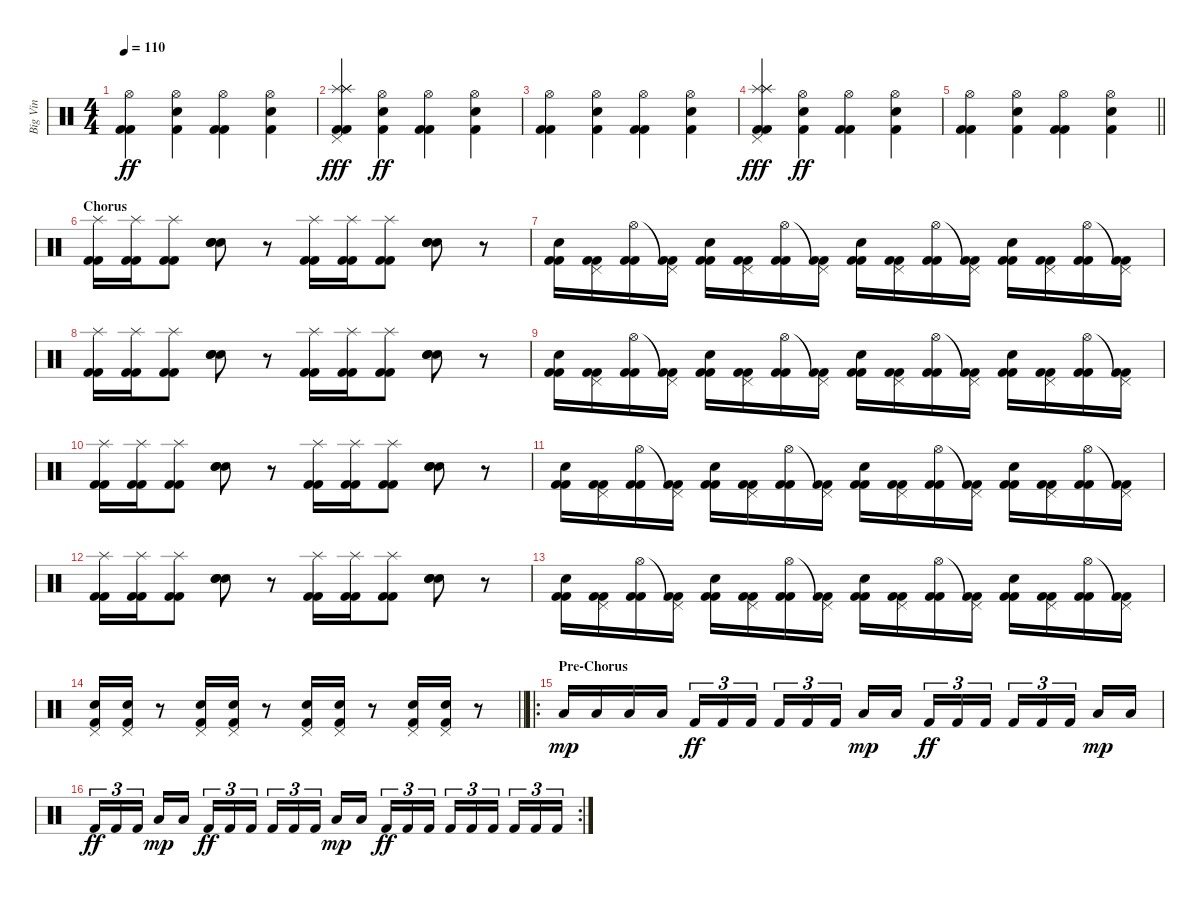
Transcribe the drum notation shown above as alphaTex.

\track ("Big Vin" "Big Vin") {instrument percussion}
\staff {score}
\articulation defaults
\ts (4 4)
\tempo 110
\clef neutral
\ks c
("Hi-Hat (open)" "Kick (hit) 2" "Kick (hit) 2").4{dy ff} ("Hi-Hat (open)" "Snare (hit) 2" "Kick (hit) 2").4 ("Hi-Hat (open)" "Kick (hit) 2" "Kick (hit) 2").4 ("Hi-Hat (open)" "Snare (hit) 2" "Kick (hit) 2").4 |
("Splash (hit)" "Splash (hit)" "Splash (hit)" "Pedal Hi-Hat (hit)" "Kick (hit) 2" "Kick (hit) 2").4{dy fff} ("Hi-Hat (open)" "Snare (hit) 2" "Kick (hit) 2").4{dy ff} ("Hi-Hat (open)" "Kick (hit) 2" "Kick (hit) 2").4 ("Hi-Hat (open)" "Snare (hit) 2" "Kick (hit) 2").4 |
("Hi-Hat (open)" "Kick (hit) 2" "Kick (hit) 2").4 ("Hi-Hat (open)" "Snare (hit) 2" "Kick (hit) 2").4 ("Hi-Hat (open)" "Kick (hit) 2" "Kick (hit) 2").4 ("Hi-Hat (open)" "Snare (hit) 2" "Kick (hit) 2").4 |
("Splash (hit)" "Splash (hit)" "Splash (hit)" "Pedal Hi-Hat (hit)" "Kick (hit) 2" "Kick (hit) 2").4{dy fff} ("Hi-Hat (open)" "Snare (hit) 2" "Kick (hit) 2").4{dy ff} ("Hi-Hat (open)" "Kick (hit) 2" "Kick (hit) 2").4 ("Hi-Hat (open)" "Snare (hit) 2" "Kick (hit) 2").4 |
\barLineRight lightlight
("Hi-Hat (open)" "Kick (hit) 2" "Kick (hit) 2").4 ("Hi-Hat (open)" "Snare (hit) 2" "Kick (hit) 2").4 ("Hi-Hat (open)" "Kick (hit) 2" "Kick (hit) 2").4 ("Hi-Hat (open)" "Snare (hit) 2" "Kick (hit) 2").4 |
\section ("" "Chorus")
("Splash (hit)" "Kick (hit) 2" "Kick (hit) 2").16 ("Splash (hit)" "Kick (hit) 2" "Kick (hit) 2").16 ("Splash (hit)" "Kick (hit) 2" "Kick (hit) 2").8 ("Snare (hit) 2" "Snare (hit) 2" "Snare (hit) 2").8 r.8 ("Splash (hit)" "Kick (hit) 2" "Kick (hit) 2").16 ("Splash (hit)" "Kick (hit) 2" "Kick (hit) 2").16 ("Splash (hit)" "Kick (hit) 2" "Kick (hit) 2").8 ("Snare (hit) 2" "Snare (hit) 2" "Snare (hit) 2").8 r.8 |
("Snare (hit) 2" "Kick (hit) 2" "Kick (hit) 2").16 ("Pedal Hi-Hat (hit)" "Kick (hit) 2" "Kick (hit) 2").16 ("Hi-Hat (open)" "Kick (hit) 2" "Kick (hit) 2").16 ("Pedal Hi-Hat (hit)"{t} "Kick (hit) 2" "Kick (hit) 2").16 ("Snare (hit) 2" "Kick (hit) 2" "Kick (hit) 2").16 ("Pedal Hi-Hat (hit)" "Kick (hit) 2" "Kick (hit) 2").16 ("Hi-Hat (open)" "Kick (hit) 2" "Kick (hit) 2").16 ("Pedal Hi-Hat (hit)"{t} "Kick (hit) 2" "Kick (hit) 2").16 ("Snare (hit) 2" "Kick (hit) 2" "Kick (hit) 2").16 ("Pedal Hi-Hat (hit)" "Kick (hit) 2" "Kick (hit) 2").16 ("Hi-Hat (open)" "Kick (hit) 2" "Kick (hit) 2").16 ("Pedal Hi-Hat (hit)"{t} "Kick (hit) 2" "Kick (hit) 2").16 ("Snare (hit) 2" "Kick (hit) 2" "Kick (hit) 2").16 ("Pedal Hi-Hat (hit)" "Kick (hit) 2" "Kick (hit) 2").16 ("Hi-Hat (open)" "Kick (hit) 2" "Kick (hit) 2").16 ("Pedal Hi-Hat (hit)"{t} "Kick (hit) 2" "Kick (hit) 2").16 |
("Splash (hit)" "Kick (hit) 2" "Kick (hit) 2").16 ("Splash (hit)" "Kick (hit) 2" "Kick (hit) 2").16 ("Splash (hit)" "Kick (hit) 2" "Kick (hit) 2").8 ("Snare (hit) 2" "Snare (hit) 2" "Snare (hit) 2").8 r.8 ("Splash (hit)" "Kick (hit) 2" "Kick (hit) 2").16 ("Splash (hit)" "Kick (hit) 2" "Kick (hit) 2").16 ("Splash (hit)" "Kick (hit) 2" "Kick (hit) 2").8 ("Snare (hit) 2" "Snare (hit) 2" "Snare (hit) 2").8 r.8 |
("Snare (hit) 2" "Kick (hit) 2" "Kick (hit) 2").16 ("Pedal Hi-Hat (hit)" "Kick (hit) 2" "Kick (hit) 2").16 ("Hi-Hat (open)" "Kick (hit) 2" "Kick (hit) 2").16 ("Pedal Hi-Hat (hit)"{t} "Kick (hit) 2" "Kick (hit) 2").16 ("Snare (hit) 2" "Kick (hit) 2" "Kick (hit) 2").16 ("Pedal Hi-Hat (hit)" "Kick (hit) 2" "Kick (hit) 2").16 ("Hi-Hat (open)" "Kick (hit) 2" "Kick (hit) 2").16 ("Pedal Hi-Hat (hit)"{t} "Kick (hit) 2" "Kick (hit) 2").16 ("Snare (hit) 2" "Kick (hit) 2" "Kick (hit) 2").16 ("Pedal Hi-Hat (hit)" "Kick (hit) 2" "Kick (hit) 2").16 ("Hi-Hat (open)" "Kick (hit) 2" "Kick (hit) 2").16 ("Pedal Hi-Hat (hit)"{t} "Kick (hit) 2" "Kick (hit) 2").16 ("Snare (hit) 2" "Kick (hit) 2" "Kick (hit) 2").16 ("Pedal Hi-Hat (hit)" "Kick (hit) 2" "Kick (hit) 2").16 ("Hi-Hat (open)" "Kick (hit) 2" "Kick (hit) 2").16 ("Pedal Hi-Hat (hit)"{t} "Kick (hit) 2" "Kick (hit) 2").16 |
("Splash (hit)" "Kick (hit) 2" "Kick (hit) 2").16 ("Splash (hit)" "Kick (hit) 2" "Kick (hit) 2").16 ("Splash (hit)" "Kick (hit) 2" "Kick (hit) 2").8 ("Snare (hit) 2" "Snare (hit) 2" "Snare (hit) 2").8 r.8 ("Splash (hit)" "Kick (hit) 2" "Kick (hit) 2").16 ("Splash (hit)" "Kick (hit) 2" "Kick (hit) 2").16 ("Splash (hit)" "Kick (hit) 2" "Kick (hit) 2").8 ("Snare (hit) 2" "Snare (hit) 2" "Snare (hit) 2").8 r.8 |
("Snare (hit) 2" "Kick (hit) 2" "Kick (hit) 2").16 ("Pedal Hi-Hat (hit)" "Kick (hit) 2" "Kick (hit) 2").16 ("Hi-Hat (open)" "Kick (hit) 2" "Kick (hit) 2").16 ("Pedal Hi-Hat (hit)"{t} "Kick (hit) 2" "Kick (hit) 2").16 ("Snare (hit) 2" "Kick (hit) 2" "Kick (hit) 2").16 ("Pedal Hi-Hat (hit)" "Kick (hit) 2" "Kick (hit) 2").16 ("Hi-Hat (open)" "Kick (hit) 2" "Kick (hit) 2").16 ("Pedal Hi-Hat (hit)"{t} "Kick (hit) 2" "Kick (hit) 2").16 ("Snare (hit) 2" "Kick (hit) 2" "Kick (hit) 2").16 ("Pedal Hi-Hat (hit)" "Kick (hit) 2" "Kick (hit) 2").16 ("Hi-Hat (open)" "Kick (hit) 2" "Kick (hit) 2").16 ("Pedal Hi-Hat (hit)"{t} "Kick (hit) 2" "Kick (hit) 2").16 ("Snare (hit) 2" "Kick (hit) 2" "Kick (hit) 2").16 ("Pedal Hi-Hat (hit)" "Kick (hit) 2" "Kick (hit) 2").16 ("Hi-Hat (open)" "Kick (hit) 2" "Kick (hit) 2").16 ("Pedal Hi-Hat (hit)"{t} "Kick (hit) 2" "Kick (hit) 2").16 |
("Splash (hit)" "Kick (hit) 2" "Kick (hit) 2").16 ("Splash (hit)" "Kick (hit) 2" "Kick (hit) 2").16 ("Splash (hit)" "Kick (hit) 2" "Kick (hit) 2").8 ("Snare (hit) 2" "Snare (hit) 2" "Snare (hit) 2").8 r.8 ("Splash (hit)" "Kick (hit) 2" "Kick (hit) 2").16 ("Splash (hit)" "Kick (hit) 2" "Kick (hit) 2").16 ("Splash (hit)" "Kick (hit) 2" "Kick (hit) 2").8 ("Snare (hit) 2" "Snare (hit) 2" "Snare (hit) 2").8 r.8 |
("Snare (hit) 2" "Kick (hit) 2" "Kick (hit) 2").16 ("Pedal Hi-Hat (hit)" "Kick (hit) 2" "Kick (hit) 2").16 ("Hi-Hat (open)" "Kick (hit) 2" "Kick (hit) 2").16 ("Pedal Hi-Hat (hit)"{t} "Kick (hit) 2" "Kick (hit) 2").16 ("Snare (hit) 2" "Kick (hit) 2" "Kick (hit) 2").16 ("Pedal Hi-Hat (hit)" "Kick (hit) 2" "Kick (hit) 2").16 ("Hi-Hat (open)" "Kick (hit) 2" "Kick (hit) 2").16 ("Pedal Hi-Hat (hit)"{t} "Kick (hit) 2" "Kick (hit) 2").16 ("Snare (hit) 2" "Kick (hit) 2" "Kick (hit) 2").16 ("Pedal Hi-Hat (hit)" "Kick (hit) 2" "Kick (hit) 2").16 ("Hi-Hat (open)" "Kick (hit) 2" "Kick (hit) 2").16 ("Pedal Hi-Hat (hit)"{t} "Kick (hit) 2" "Kick (hit) 2").16 ("Snare (hit) 2" "Kick (hit) 2" "Kick (hit) 2").16 ("Pedal Hi-Hat (hit)" "Kick (hit) 2" "Kick (hit) 2").16 ("Hi-Hat (open)" "Kick (hit) 2" "Kick (hit) 2").16 ("Pedal Hi-Hat (hit)"{t} "Kick (hit) 2" "Kick (hit) 2").16 |
\barLineRight lightlight
("Pedal Hi-Hat (hit)" "Snare (hit) 2" "Kick (hit) 2").16 ("Pedal Hi-Hat (hit)" "Snare (hit) 2" "Kick (hit) 2").16 r.8 ("Pedal Hi-Hat (hit)" "Snare (hit) 2" "Kick (hit) 2").16 ("Pedal Hi-Hat (hit)" "Snare (hit) 2" "Kick (hit) 2").16 r.8 ("Pedal Hi-Hat (hit)" "Snare (hit) 2" "Kick (hit) 2").16 ("Pedal Hi-Hat (hit)" "Snare (hit) 2" "Kick (hit) 2").16 r.8 ("Pedal Hi-Hat (hit)" "Snare (hit) 2" "Kick (hit) 2").16 ("Pedal Hi-Hat (hit)" "Snare (hit) 2" "Kick (hit) 2").16 r.8 |
\ro
\section ("" "Pre-Chorus")
"Low Floor Tom (hit)".16{dy mp} "Low Floor Tom (hit)".16 "Low Floor Tom (hit)".16 "Low Floor Tom (hit)".16 "Kick (hit) 2".16{tu (3 2) dy ff} "Kick (hit) 2".16{tu (3 2)} "Kick (hit) 2".16{tu (3 2) beam splitsecondary} "Kick (hit) 2".16{tu (3 2)} "Kick (hit) 2".16{tu (3 2)} "Kick (hit) 2".16{tu (3 2)} "Low Floor Tom (hit)".16{dy mp} "Low Floor Tom (hit)".16{beam splitsecondary} "Kick (hit) 2".16{tu (3 2) dy ff} "Kick (hit) 2".16{tu (3 2)} "Kick (hit) 2".16{tu (3 2)} "Kick (hit) 2".16{tu (3 2)} "Kick (hit) 2".16{tu (3 2)} "Kick (hit) 2".16{tu (3 2) beam splitsecondary} "Low Floor Tom (hit)".16{dy mp} "Low Floor Tom (hit)".16 |
\rc 2 "Kick (hit) 2".16{tu (3 2) dy ff} "Kick (hit) 2".16{tu (3 2)} "Kick (hit) 2".16{tu (3 2) beam splitsecondary} "Low Floor Tom (hit)".16{dy mp} "Low Floor Tom (hit)".16 "Kick (hit) 2".16{tu (3 2) dy ff} "Kick (hit) 2".16{tu (3 2)} "Kick (hit) 2".16{tu (3 2) beam splitsecondary} "Kick (hit) 2".16{tu (3 2)} "Kick (hit) 2".16{tu (3 2)} "Kick (hit) 2".16{tu (3 2)} "Low Floor Tom (hit)".16{dy mp} "Low Floor Tom (hit)".16{beam splitsecondary} "Kick (hit) 2".16{tu (3 2) dy ff} "Kick (hit) 2".16{tu (3 2)} "Kick (hit) 2".16{tu (3 2)} "Kick (hit) 2".16{tu (3 2)} "Kick (hit) 2".16{tu (3 2)} "Kick (hit) 2".16{tu (3 2) beam splitsecondary} "Kick (hit) 2".16{tu (3 2)} "Kick (hit) 2".16{tu (3 2)} "Kick (hit) 2".16{tu (3 2)}
